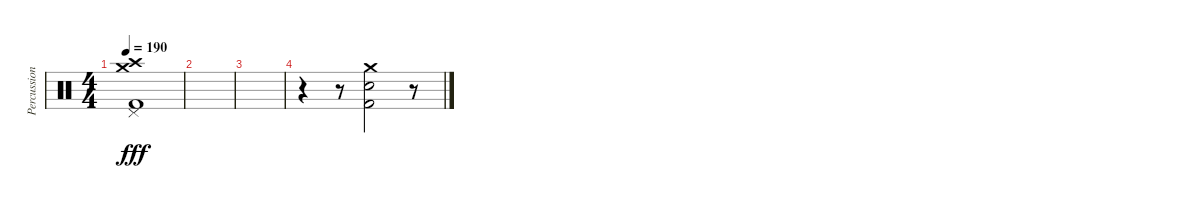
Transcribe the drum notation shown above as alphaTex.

\track ("Percussions" "Percussion") {instrument percussion}
\staff {score}
\articulation defaults
\ts (4 4)
\tempo 190
\clef neutral
\ks c
("Crash medium (hit)" "Crash high (hit)" "Pedal Hi-Hat (hit)" "Kick (hit) 2").1{dy fff} |
|
|
r.4 r.8 ("Crash medium (hit)" "Electric Snare (hit)" "Kick (hit) 2").2 r.8
